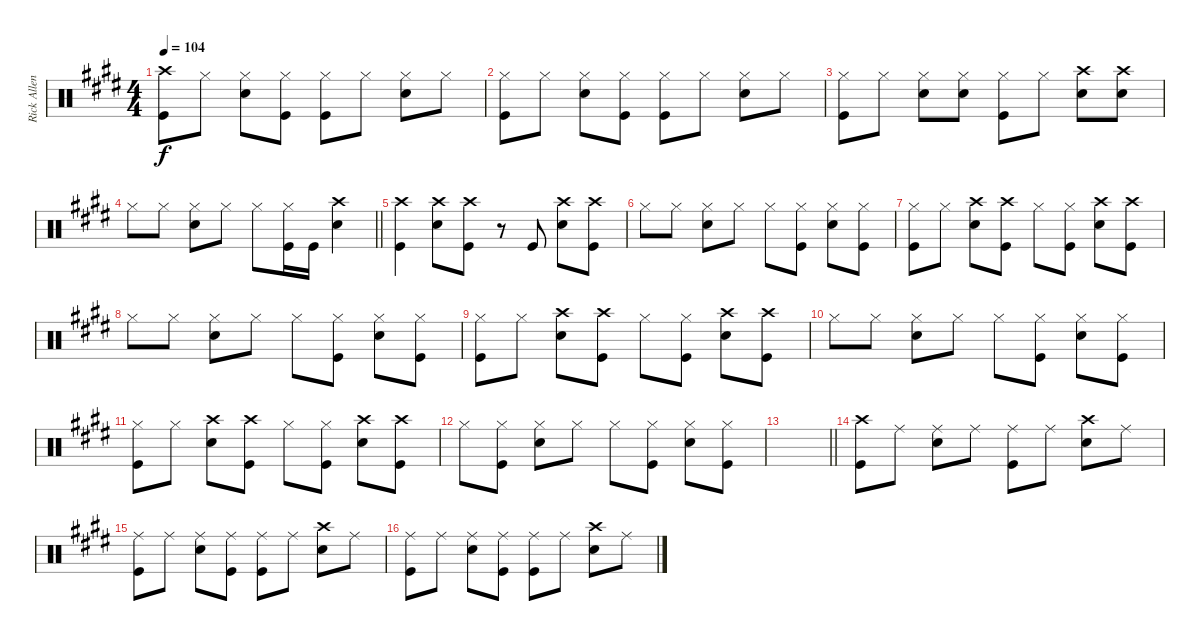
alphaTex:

\track ("Rick Allen" "Rick Allen") {instrument percussion}
\staff {score}
\articulation defaults
\ts (4 4)
\tempo 104
\clef neutral
\ks e
("Crash high (hit)" "Kick (hit)").8{dy f} "Hi-Hat (closed)".8 ("Hi-Hat (closed)" "Snare (hit) 2").8 ("Hi-Hat (closed)" "Kick (hit)").8 ("Hi-Hat (closed)" "Kick (hit)").8 "Hi-Hat (closed)".8 ("Hi-Hat (closed)" "Snare (hit) 2").8 "Hi-Hat (closed)".8 |
("Hi-Hat (closed)" "Kick (hit)").8 "Hi-Hat (closed)".8 ("Hi-Hat (closed)" "Snare (hit) 2").8 ("Hi-Hat (closed)" "Kick (hit)").8 ("Hi-Hat (closed)" "Kick (hit)").8 "Hi-Hat (closed)".8 ("Hi-Hat (closed)" "Snare (hit) 2").8 "Hi-Hat (closed)".8 |
("Hi-Hat (closed)" "Kick (hit)").8 "Hi-Hat (closed)".8 ("Hi-Hat (closed)" "Snare (hit) 2").8 ("Hi-Hat (closed)" "Snare (hit) 2").8 ("Hi-Hat (closed)" "Kick (hit)").8 "Hi-Hat (closed)".8 ("Crash high (hit)" "Snare (hit) 2").8 ("Crash high (hit)" "Snare (hit) 2").8 |
\barLineRight lightlight "Hi-Hat (closed)".8 "Hi-Hat (closed)".8
("Hi-Hat (closed)" "Snare (hit) 2").8 "Hi-Hat (closed)".8 "Hi-Hat (closed)".8 ("Hi-Hat (closed)" "Kick (hit)").16 "Kick (hit)".16 ("Crash high (hit)" "Snare (hit) 2").4 |
("Crash high (hit)" "Kick (hit)").4 ("Crash high (hit)" "Snare (hit) 2").8 ("Crash high (hit)" "Kick (hit)").8 r.8 "Kick (hit)".8 ("Crash high (hit)" "Snare (hit) 2").8 ("Crash high (hit)" "Kick (hit)").8 |
"Hi-Hat (closed)".8 "Hi-Hat (closed)".8 ("Hi-Hat (closed)" "Snare (hit) 2").8 "Hi-Hat (closed)".8 "Hi-Hat (closed)".8 ("Hi-Hat (closed)" "Kick (hit)").8 ("Hi-Hat (closed)" "Snare (hit) 2").8 ("Hi-Hat (closed)" "Kick (hit)").8 |
("Hi-Hat (closed)" "Kick (hit)").8 "Hi-Hat (closed)".8 ("Crash high (hit)" "Snare (hit) 2").8 ("Crash high (hit)" "Kick (hit)").8 "Hi-Hat (closed)".8 ("Hi-Hat (closed)" "Kick (hit)").8 ("Crash high (hit)" "Snare (hit) 2").8 ("Crash high (hit)" "Kick (hit)").8 |
"Hi-Hat (closed)".8 "Hi-Hat (closed)".8 ("Hi-Hat (closed)" "Snare (hit) 2").8 "Hi-Hat (closed)".8 "Hi-Hat (closed)".8 ("Hi-Hat (closed)" "Kick (hit)").8 ("Hi-Hat (closed)" "Snare (hit) 2").8 ("Hi-Hat (closed)" "Kick (hit)").8 |
("Hi-Hat (closed)" "Kick (hit)").8 "Hi-Hat (closed)".8 ("Crash high (hit)" "Snare (hit) 2").8 ("Crash high (hit)" "Kick (hit)").8 "Hi-Hat (closed)".8 ("Hi-Hat (closed)" "Kick (hit)").8 ("Crash high (hit)" "Snare (hit) 2").8 ("Crash high (hit)" "Kick (hit)").8 |
"Hi-Hat (closed)".8 "Hi-Hat (closed)".8 ("Hi-Hat (closed)" "Snare (hit) 2").8 "Hi-Hat (closed)".8 "Hi-Hat (closed)".8 ("Hi-Hat (closed)" "Kick (hit)").8 ("Hi-Hat (closed)" "Snare (hit) 2").8 ("Hi-Hat (closed)" "Kick (hit)").8 |
("Hi-Hat (closed)" "Kick (hit)").8 "Hi-Hat (closed)".8 ("Crash high (hit)" "Snare (hit) 2").8 ("Crash high (hit)" "Kick (hit)").8 "Hi-Hat (closed)".8 ("Hi-Hat (closed)" "Kick (hit)").8 ("Crash high (hit)" "Snare (hit) 2").8 ("Crash high (hit)" "Kick (hit)").8 |
"Hi-Hat (closed)".8 ("Hi-Hat (closed)" "Kick (hit)").8 ("Hi-Hat (closed)" "Snare (hit) 2").8 "Hi-Hat (closed)".8 "Hi-Hat (closed)".8 ("Hi-Hat (closed)" "Kick (hit)").8 ("Hi-Hat (closed)" "Snare (hit) 2").8 ("Hi-Hat (closed)" "Kick (hit)").8 |
\barLineRight lightlight
|
("Crash high (hit)" "Kick (hit)").8 "Ride (middle)".8 ("Ride (middle)" "Snare (hit) 2").8 "Ride (middle)".8 ("Ride (middle)" "Kick (hit)").8 "Ride (middle)".8 ("Crash high (hit)" "Snare (hit) 2").8 "Ride (middle)".8 |
("Ride (middle)" "Kick (hit)").8 "Ride (middle)".8 ("Ride (middle)" "Snare (hit) 2").8 ("Ride (middle)" "Kick (hit)").8 ("Ride (middle)" "Kick (hit)").8 "Ride (middle)".8 ("Crash high (hit)" "Snare (hit) 2").8 "Ride (middle)".8 |
("Ride (middle)" "Kick (hit)").8 "Ride (middle)".8 ("Ride (middle)" "Snare (hit) 2").8 ("Ride (middle)" "Kick (hit)").8 ("Ride (middle)" "Kick (hit)").8 "Ride (middle)".8 ("Crash high (hit)" "Snare (hit) 2").8 "Ride (middle)".8
